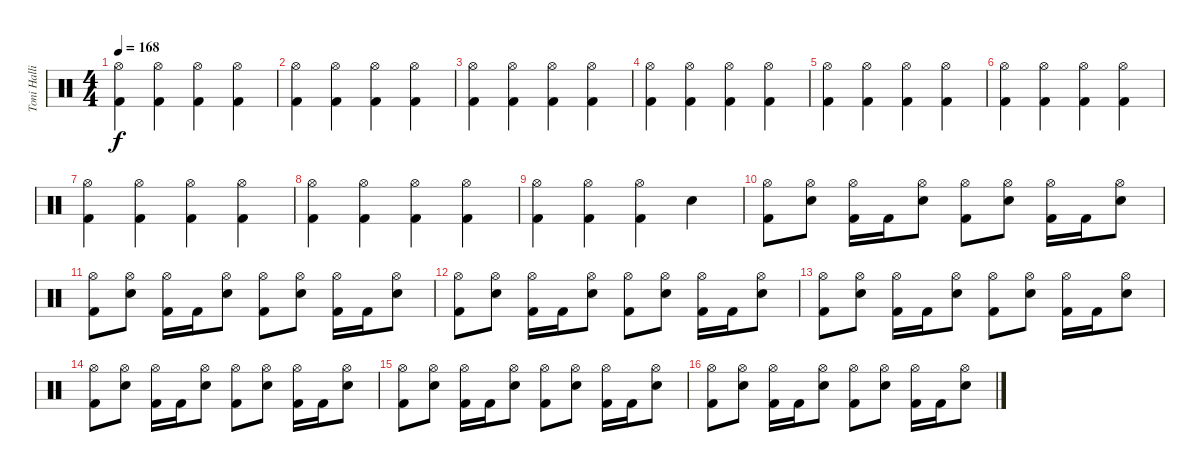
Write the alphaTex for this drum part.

\track ("Toni Hallio" "Toni Halli") {instrument percussion}
\staff {score}
\articulation defaults
\ts (4 4)
\tempo 168
\clef neutral
\ks c
("Hi-Hat (open)" "Kick (hit) 2").4{dy f} ("Hi-Hat (open)" "Kick (hit) 2").4 ("Hi-Hat (open)" "Kick (hit) 2").4 ("Hi-Hat (open)" "Kick (hit) 2").4 |
("Hi-Hat (open)" "Kick (hit) 2").4 ("Hi-Hat (open)" "Kick (hit) 2").4 ("Hi-Hat (open)" "Kick (hit) 2").4 ("Hi-Hat (open)" "Kick (hit) 2").4 |
("Hi-Hat (open)" "Kick (hit) 2").4 ("Hi-Hat (open)" "Kick (hit) 2").4 ("Hi-Hat (open)" "Kick (hit) 2").4 ("Hi-Hat (open)" "Kick (hit) 2").4 |
("Hi-Hat (open)" "Kick (hit) 2").4 ("Hi-Hat (open)" "Kick (hit) 2").4 ("Hi-Hat (open)" "Kick (hit) 2").4 ("Hi-Hat (open)" "Kick (hit) 2").4 |
("Hi-Hat (open)" "Kick (hit) 2").4 ("Hi-Hat (open)" "Kick (hit) 2").4 ("Hi-Hat (open)" "Kick (hit) 2").4 ("Hi-Hat (open)" "Kick (hit) 2").4 |
("Hi-Hat (open)" "Kick (hit) 2").4 ("Hi-Hat (open)" "Kick (hit) 2").4 ("Hi-Hat (open)" "Kick (hit) 2").4 ("Hi-Hat (open)" "Kick (hit) 2").4 |
("Hi-Hat (open)" "Kick (hit) 2").4 ("Hi-Hat (open)" "Kick (hit) 2").4 ("Hi-Hat (open)" "Kick (hit) 2").4 ("Hi-Hat (open)" "Kick (hit) 2").4 |
("Hi-Hat (open)" "Kick (hit) 2").4 ("Hi-Hat (open)" "Kick (hit) 2").4 ("Hi-Hat (open)" "Kick (hit) 2").4 ("Hi-Hat (open)" "Kick (hit) 2").4 |
("Hi-Hat (open)" "Kick (hit) 2").4 ("Hi-Hat (open)" "Kick (hit) 2").4 ("Hi-Hat (open)" "Kick (hit) 2").4 "Snare (hit) 2".4 |
("Hi-Hat (open)" "Kick (hit) 2").8 ("Hi-Hat (open)" "Snare (hit) 2").8 ("Hi-Hat (open)" "Kick (hit) 2").16 "Kick (hit) 2".16 ("Hi-Hat (open)" "Snare (hit) 2").8 ("Hi-Hat (open)" "Kick (hit) 2").8 ("Hi-Hat (open)" "Snare (hit) 2").8 ("Hi-Hat (open)" "Kick (hit) 2").16 "Kick (hit) 2".16 ("Hi-Hat (open)" "Snare (hit) 2").8 |
("Hi-Hat (open)" "Kick (hit) 2").8 ("Hi-Hat (open)" "Snare (hit) 2").8 ("Hi-Hat (open)" "Kick (hit) 2").16 "Kick (hit) 2".16 ("Hi-Hat (open)" "Snare (hit) 2").8 ("Hi-Hat (open)" "Kick (hit) 2").8 ("Hi-Hat (open)" "Snare (hit) 2").8 ("Hi-Hat (open)" "Kick (hit) 2").16 "Kick (hit) 2".16 ("Hi-Hat (open)" "Snare (hit) 2").8 |
("Hi-Hat (open)" "Kick (hit) 2").8 ("Hi-Hat (open)" "Snare (hit) 2").8 ("Hi-Hat (open)" "Kick (hit) 2").16 "Kick (hit) 2".16 ("Hi-Hat (open)" "Snare (hit) 2").8 ("Hi-Hat (open)" "Kick (hit) 2").8 ("Hi-Hat (open)" "Snare (hit) 2").8 ("Hi-Hat (open)" "Kick (hit) 2").16 "Kick (hit) 2".16 ("Hi-Hat (open)" "Snare (hit) 2").8 |
("Hi-Hat (open)" "Kick (hit) 2").8 ("Hi-Hat (open)" "Snare (hit) 2").8 ("Hi-Hat (open)" "Kick (hit) 2").16 "Kick (hit) 2".16 ("Hi-Hat (open)" "Snare (hit) 2").8 ("Hi-Hat (open)" "Kick (hit) 2").8 ("Hi-Hat (open)" "Snare (hit) 2").8 ("Hi-Hat (open)" "Kick (hit) 2").16 "Kick (hit) 2".16 ("Hi-Hat (open)" "Snare (hit) 2").8 |
("Hi-Hat (open)" "Kick (hit) 2").8 ("Hi-Hat (open)" "Snare (hit) 2").8 ("Hi-Hat (open)" "Kick (hit) 2").16 "Kick (hit) 2".16 ("Hi-Hat (open)" "Snare (hit) 2").8 ("Hi-Hat (open)" "Kick (hit) 2").8 ("Hi-Hat (open)" "Snare (hit) 2").8 ("Hi-Hat (open)" "Kick (hit) 2").16 "Kick (hit) 2".16 ("Hi-Hat (open)" "Snare (hit) 2").8 |
("Hi-Hat (open)" "Kick (hit) 2").8 ("Hi-Hat (open)" "Snare (hit) 2").8 ("Hi-Hat (open)" "Kick (hit) 2").16 "Kick (hit) 2".16 ("Hi-Hat (open)" "Snare (hit) 2").8 ("Hi-Hat (open)" "Kick (hit) 2").8 ("Hi-Hat (open)" "Snare (hit) 2").8 ("Hi-Hat (open)" "Kick (hit) 2").16 "Kick (hit) 2".16 ("Hi-Hat (open)" "Snare (hit) 2").8 |
("Hi-Hat (open)" "Kick (hit) 2").8 ("Hi-Hat (open)" "Snare (hit) 2").8 ("Hi-Hat (open)" "Kick (hit) 2").16 "Kick (hit) 2".16 ("Hi-Hat (open)" "Snare (hit) 2").8 ("Hi-Hat (open)" "Kick (hit) 2").8 ("Hi-Hat (open)" "Snare (hit) 2").8 ("Hi-Hat (open)" "Kick (hit) 2").16 "Kick (hit) 2".16 ("Hi-Hat (open)" "Snare (hit) 2").8
